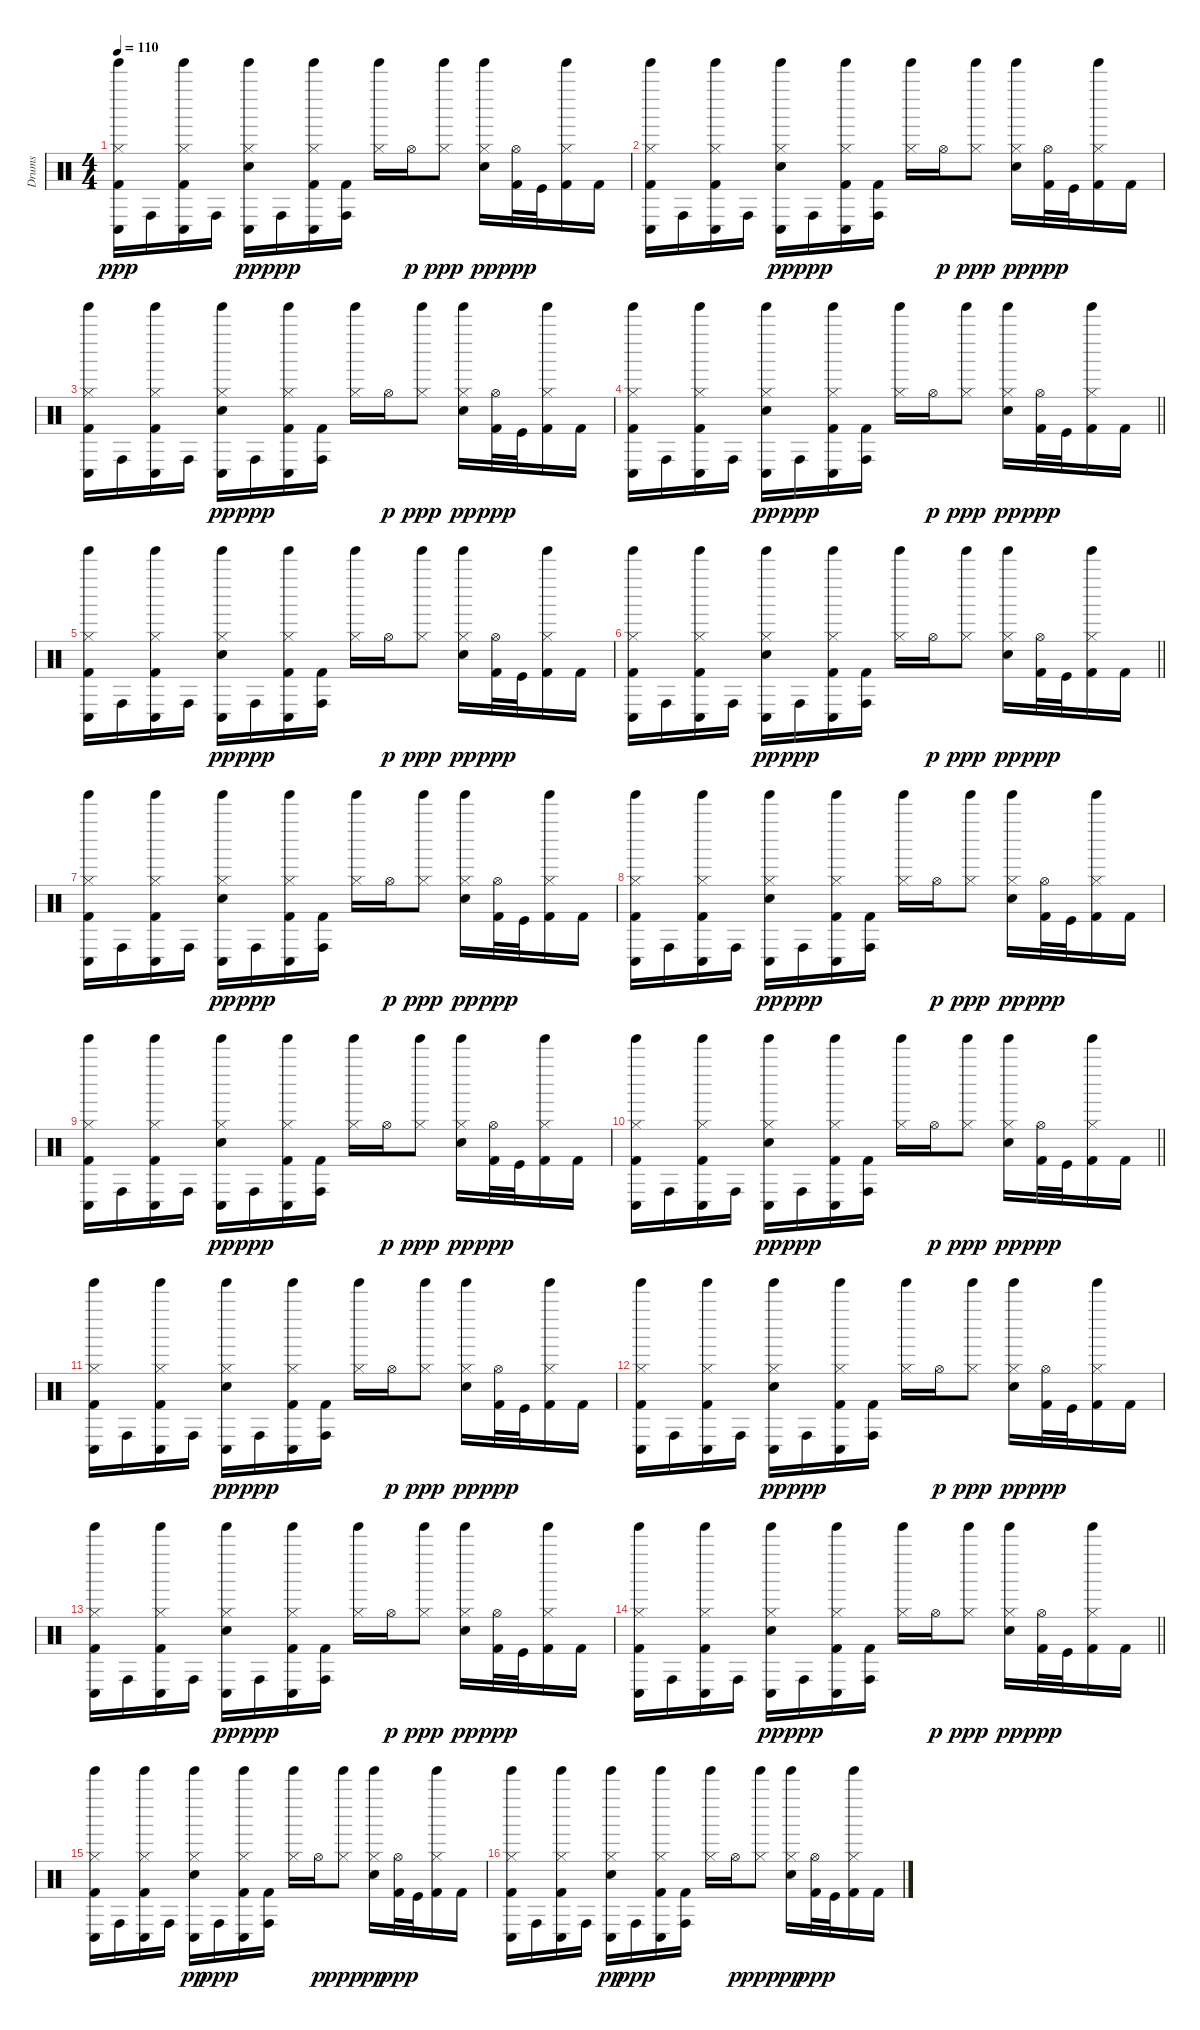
\track ("Drums" "Drums") {instrument percussion}
\staff {score}
\articulation defaults
\ts (4 4)
\tempo 110
\clef neutral
\ks c
("Tinkle Bell (hit)" "Conga low (hit)" "Hi-Hat (closed)" "Kick (hit) 2").16{dy ppp} "Conga high (hit)".16 ("Tinkle Bell (hit)" "Conga low (hit)" "Hi-Hat (closed)" "Kick (hit) 2").16 "Conga high (hit)".16 ("Tinkle Bell (hit)" "Conga low (hit)" "Hi-Hat (closed)" "Snare (hit) 2").16{dy pp} "Conga high (hit)".16{dy ppp} ("Tinkle Bell (hit)" "Conga low (hit)" "Hi-Hat (closed)" "Kick (hit) 2").16 ("Conga high (hit)" "Kick (hit) 2").16 ("Tinkle Bell (hit)" "Hi-Hat (closed)").16 "Hi-Hat (open)".16{dy p} ("Tinkle Bell (hit)" "Hi-Hat (closed)").8{dy ppp} ("Tinkle Bell (hit)" "Hi-Hat (closed)" "Snare (hit) 2").16{dy pp} ("Hi-Hat (open)" "Kick (hit) 2").32{dy ppp} "Kick (hit)".32 ("Tinkle Bell (hit)" "Hi-Hat (closed)" "Kick (hit) 2").16 "Kick (hit) 2".16 |
("Tinkle Bell (hit)" "Conga low (hit)" "Hi-Hat (closed)" "Kick (hit) 2").16 "Conga high (hit)".16 ("Tinkle Bell (hit)" "Conga low (hit)" "Hi-Hat (closed)" "Kick (hit) 2").16 "Conga high (hit)".16 ("Tinkle Bell (hit)" "Conga low (hit)" "Hi-Hat (closed)" "Snare (hit) 2").16{dy pp} "Conga high (hit)".16{dy ppp} ("Tinkle Bell (hit)" "Conga low (hit)" "Hi-Hat (closed)" "Kick (hit) 2").16 ("Conga high (hit)" "Kick (hit) 2").16 ("Tinkle Bell (hit)" "Hi-Hat (closed)").16 "Hi-Hat (open)".16{dy p} ("Tinkle Bell (hit)" "Hi-Hat (closed)").8{dy ppp} ("Tinkle Bell (hit)" "Hi-Hat (closed)" "Snare (hit) 2").16{dy pp} ("Hi-Hat (open)" "Kick (hit) 2").32{dy ppp} "Kick (hit)".32 ("Tinkle Bell (hit)" "Hi-Hat (closed)" "Kick (hit) 2").16 "Kick (hit) 2".16 |
("Tinkle Bell (hit)" "Conga low (hit)" "Hi-Hat (closed)" "Kick (hit) 2").16 "Conga high (hit)".16 ("Tinkle Bell (hit)" "Conga low (hit)" "Hi-Hat (closed)" "Kick (hit) 2").16 "Conga high (hit)".16 ("Tinkle Bell (hit)" "Conga low (hit)" "Hi-Hat (closed)" "Snare (hit) 2").16{dy pp} "Conga high (hit)".16{dy ppp} ("Tinkle Bell (hit)" "Conga low (hit)" "Hi-Hat (closed)" "Kick (hit) 2").16 ("Conga high (hit)" "Kick (hit) 2").16 ("Tinkle Bell (hit)" "Hi-Hat (closed)").16 "Hi-Hat (open)".16{dy p} ("Tinkle Bell (hit)" "Hi-Hat (closed)").8{dy ppp} ("Tinkle Bell (hit)" "Hi-Hat (closed)" "Snare (hit) 2").16{dy pp} ("Hi-Hat (open)" "Kick (hit) 2").32{dy ppp} "Kick (hit)".32 ("Tinkle Bell (hit)" "Hi-Hat (closed)" "Kick (hit) 2").16 "Kick (hit) 2".16 |
\barLineRight lightlight
("Tinkle Bell (hit)" "Conga low (hit)" "Hi-Hat (closed)" "Kick (hit) 2").16 "Conga high (hit)".16 ("Tinkle Bell (hit)" "Conga low (hit)" "Hi-Hat (closed)" "Kick (hit) 2").16 "Conga high (hit)".16 ("Tinkle Bell (hit)" "Conga low (hit)" "Hi-Hat (closed)" "Snare (hit) 2").16{dy pp} "Conga high (hit)".16{dy ppp} ("Tinkle Bell (hit)" "Conga low (hit)" "Hi-Hat (closed)" "Kick (hit) 2").16 ("Conga high (hit)" "Kick (hit) 2").16 ("Tinkle Bell (hit)" "Hi-Hat (closed)").16 "Hi-Hat (open)".16{dy p} ("Tinkle Bell (hit)" "Hi-Hat (closed)").8{dy ppp} ("Tinkle Bell (hit)" "Hi-Hat (closed)" "Snare (hit) 2").16{dy pp} ("Hi-Hat (open)" "Kick (hit) 2").32{dy ppp} "Kick (hit)".32 ("Tinkle Bell (hit)" "Hi-Hat (closed)" "Kick (hit) 2").16 "Kick (hit) 2".16 |
("Tinkle Bell (hit)" "Conga low (hit)" "Hi-Hat (closed)" "Kick (hit) 2").16 "Conga high (hit)".16 ("Tinkle Bell (hit)" "Conga low (hit)" "Hi-Hat (closed)" "Kick (hit) 2").16 "Conga high (hit)".16 ("Tinkle Bell (hit)" "Conga low (hit)" "Hi-Hat (closed)" "Snare (hit) 2").16{dy pp} "Conga high (hit)".16{dy ppp} ("Tinkle Bell (hit)" "Conga low (hit)" "Hi-Hat (closed)" "Kick (hit) 2").16 ("Conga high (hit)" "Kick (hit) 2").16 ("Tinkle Bell (hit)" "Hi-Hat (closed)").16 "Hi-Hat (open)".16{dy p} ("Tinkle Bell (hit)" "Hi-Hat (closed)").8{dy ppp} ("Tinkle Bell (hit)" "Hi-Hat (closed)" "Snare (hit) 2").16{dy pp} ("Hi-Hat (open)" "Kick (hit) 2").32{dy ppp} "Kick (hit)".32 ("Tinkle Bell (hit)" "Hi-Hat (closed)" "Kick (hit) 2").16 "Kick (hit) 2".16 |
\barLineRight lightlight
("Tinkle Bell (hit)" "Conga low (hit)" "Hi-Hat (closed)" "Kick (hit) 2").16 "Conga high (hit)".16 ("Tinkle Bell (hit)" "Conga low (hit)" "Hi-Hat (closed)" "Kick (hit) 2").16 "Conga high (hit)".16 ("Tinkle Bell (hit)" "Conga low (hit)" "Hi-Hat (closed)" "Snare (hit) 2").16{dy pp} "Conga high (hit)".16{dy ppp} ("Tinkle Bell (hit)" "Conga low (hit)" "Hi-Hat (closed)" "Kick (hit) 2").16 ("Conga high (hit)" "Kick (hit) 2").16 ("Tinkle Bell (hit)" "Hi-Hat (closed)").16 "Hi-Hat (open)".16{dy p} ("Tinkle Bell (hit)" "Hi-Hat (closed)").8{dy ppp} ("Tinkle Bell (hit)" "Hi-Hat (closed)" "Snare (hit) 2").16{dy pp} ("Hi-Hat (open)" "Kick (hit) 2").32{dy ppp} "Kick (hit)".32 ("Tinkle Bell (hit)" "Hi-Hat (closed)" "Kick (hit) 2").16 "Kick (hit) 2".16 |
("Tinkle Bell (hit)" "Conga low (hit)" "Hi-Hat (closed)" "Kick (hit) 2").16 "Conga high (hit)".16 ("Tinkle Bell (hit)" "Conga low (hit)" "Hi-Hat (closed)" "Kick (hit) 2").16 "Conga high (hit)".16 ("Tinkle Bell (hit)" "Conga low (hit)" "Hi-Hat (closed)" "Snare (hit) 2").16{dy pp} "Conga high (hit)".16{dy ppp} ("Tinkle Bell (hit)" "Conga low (hit)" "Hi-Hat (closed)" "Kick (hit) 2").16 ("Conga high (hit)" "Kick (hit) 2").16 ("Tinkle Bell (hit)" "Hi-Hat (closed)").16 "Hi-Hat (open)".16{dy p} ("Tinkle Bell (hit)" "Hi-Hat (closed)").8{dy ppp} ("Tinkle Bell (hit)" "Hi-Hat (closed)" "Snare (hit) 2").16{dy pp} ("Hi-Hat (open)" "Kick (hit) 2").32{dy ppp} "Kick (hit)".32 ("Tinkle Bell (hit)" "Hi-Hat (closed)" "Kick (hit) 2").16 "Kick (hit) 2".16 |
("Tinkle Bell (hit)" "Conga low (hit)" "Hi-Hat (closed)" "Kick (hit) 2").16 "Conga high (hit)".16 ("Tinkle Bell (hit)" "Conga low (hit)" "Hi-Hat (closed)" "Kick (hit) 2").16 "Conga high (hit)".16 ("Tinkle Bell (hit)" "Conga low (hit)" "Hi-Hat (closed)" "Snare (hit) 2").16{dy pp} "Conga high (hit)".16{dy ppp} ("Tinkle Bell (hit)" "Conga low (hit)" "Hi-Hat (closed)" "Kick (hit) 2").16 ("Conga high (hit)" "Kick (hit) 2").16 ("Tinkle Bell (hit)" "Hi-Hat (closed)").16 "Hi-Hat (open)".16{dy p} ("Tinkle Bell (hit)" "Hi-Hat (closed)").8{dy ppp} ("Tinkle Bell (hit)" "Hi-Hat (closed)" "Snare (hit) 2").16{dy pp} ("Hi-Hat (open)" "Kick (hit) 2").32{dy ppp} "Kick (hit)".32 ("Tinkle Bell (hit)" "Hi-Hat (closed)" "Kick (hit) 2").16 "Kick (hit) 2".16 |
("Tinkle Bell (hit)" "Conga low (hit)" "Hi-Hat (closed)" "Kick (hit) 2").16 "Conga high (hit)".16 ("Tinkle Bell (hit)" "Conga low (hit)" "Hi-Hat (closed)" "Kick (hit) 2").16 "Conga high (hit)".16 ("Tinkle Bell (hit)" "Conga low (hit)" "Hi-Hat (closed)" "Snare (hit) 2").16{dy pp} "Conga high (hit)".16{dy ppp} ("Tinkle Bell (hit)" "Conga low (hit)" "Hi-Hat (closed)" "Kick (hit) 2").16 ("Conga high (hit)" "Kick (hit) 2").16 ("Tinkle Bell (hit)" "Hi-Hat (closed)").16 "Hi-Hat (open)".16{dy p} ("Tinkle Bell (hit)" "Hi-Hat (closed)").8{dy ppp} ("Tinkle Bell (hit)" "Hi-Hat (closed)" "Snare (hit) 2").16{dy pp} ("Hi-Hat (open)" "Kick (hit) 2").32{dy ppp} "Kick (hit)".32 ("Tinkle Bell (hit)" "Hi-Hat (closed)" "Kick (hit) 2").16 "Kick (hit) 2".16 |
\barLineRight lightlight
("Tinkle Bell (hit)" "Conga low (hit)" "Hi-Hat (closed)" "Kick (hit) 2").16 "Conga high (hit)".16 ("Tinkle Bell (hit)" "Conga low (hit)" "Hi-Hat (closed)" "Kick (hit) 2").16 "Conga high (hit)".16 ("Tinkle Bell (hit)" "Conga low (hit)" "Hi-Hat (closed)" "Snare (hit) 2").16{dy pp} "Conga high (hit)".16{dy ppp} ("Tinkle Bell (hit)" "Conga low (hit)" "Hi-Hat (closed)" "Kick (hit) 2").16 ("Conga high (hit)" "Kick (hit) 2").16 ("Tinkle Bell (hit)" "Hi-Hat (closed)").16 "Hi-Hat (open)".16{dy p} ("Tinkle Bell (hit)" "Hi-Hat (closed)").8{dy ppp} ("Tinkle Bell (hit)" "Hi-Hat (closed)" "Snare (hit) 2").16{dy pp} ("Hi-Hat (open)" "Kick (hit) 2").32{dy ppp} "Kick (hit)".32 ("Tinkle Bell (hit)" "Hi-Hat (closed)" "Kick (hit) 2").16 "Kick (hit) 2".16 |
("Tinkle Bell (hit)" "Conga low (hit)" "Hi-Hat (closed)" "Kick (hit) 2").16 "Conga high (hit)".16 ("Tinkle Bell (hit)" "Conga low (hit)" "Hi-Hat (closed)" "Kick (hit) 2").16 "Conga high (hit)".16 ("Tinkle Bell (hit)" "Conga low (hit)" "Hi-Hat (closed)" "Snare (hit) 2").16{dy pp} "Conga high (hit)".16{dy ppp} ("Tinkle Bell (hit)" "Conga low (hit)" "Hi-Hat (closed)" "Kick (hit) 2").16 ("Conga high (hit)" "Kick (hit) 2").16 ("Tinkle Bell (hit)" "Hi-Hat (closed)").16 "Hi-Hat (open)".16{dy p} ("Tinkle Bell (hit)" "Hi-Hat (closed)").8{dy ppp} ("Tinkle Bell (hit)" "Hi-Hat (closed)" "Snare (hit) 2").16{dy pp} ("Hi-Hat (open)" "Kick (hit) 2").32{dy ppp} "Kick (hit)".32 ("Tinkle Bell (hit)" "Hi-Hat (closed)" "Kick (hit) 2").16 "Kick (hit) 2".16 |
("Tinkle Bell (hit)" "Conga low (hit)" "Hi-Hat (closed)" "Kick (hit) 2").16 "Conga high (hit)".16 ("Tinkle Bell (hit)" "Conga low (hit)" "Hi-Hat (closed)" "Kick (hit) 2").16 "Conga high (hit)".16 ("Tinkle Bell (hit)" "Conga low (hit)" "Hi-Hat (closed)" "Snare (hit) 2").16{dy pp} "Conga high (hit)".16{dy ppp} ("Tinkle Bell (hit)" "Conga low (hit)" "Hi-Hat (closed)" "Kick (hit) 2").16 ("Conga high (hit)" "Kick (hit) 2").16 ("Tinkle Bell (hit)" "Hi-Hat (closed)").16 "Hi-Hat (open)".16{dy p} ("Tinkle Bell (hit)" "Hi-Hat (closed)").8{dy ppp} ("Tinkle Bell (hit)" "Hi-Hat (closed)" "Snare (hit) 2").16{dy pp} ("Hi-Hat (open)" "Kick (hit) 2").32{dy ppp} "Kick (hit)".32 ("Tinkle Bell (hit)" "Hi-Hat (closed)" "Kick (hit) 2").16 "Kick (hit) 2".16 |
("Tinkle Bell (hit)" "Conga low (hit)" "Hi-Hat (closed)" "Kick (hit) 2").16 "Conga high (hit)".16 ("Tinkle Bell (hit)" "Conga low (hit)" "Hi-Hat (closed)" "Kick (hit) 2").16 "Conga high (hit)".16 ("Tinkle Bell (hit)" "Conga low (hit)" "Hi-Hat (closed)" "Snare (hit) 2").16{dy pp} "Conga high (hit)".16{dy ppp} ("Tinkle Bell (hit)" "Conga low (hit)" "Hi-Hat (closed)" "Kick (hit) 2").16 ("Conga high (hit)" "Kick (hit) 2").16 ("Tinkle Bell (hit)" "Hi-Hat (closed)").16 "Hi-Hat (open)".16{dy p} ("Tinkle Bell (hit)" "Hi-Hat (closed)").8{dy ppp} ("Tinkle Bell (hit)" "Hi-Hat (closed)" "Snare (hit) 2").16{dy pp} ("Hi-Hat (open)" "Kick (hit) 2").32{dy ppp} "Kick (hit)".32 ("Tinkle Bell (hit)" "Hi-Hat (closed)" "Kick (hit) 2").16 "Kick (hit) 2".16 |
\barLineRight lightlight
("Tinkle Bell (hit)" "Conga low (hit)" "Hi-Hat (closed)" "Kick (hit) 2").16 "Conga high (hit)".16 ("Tinkle Bell (hit)" "Conga low (hit)" "Hi-Hat (closed)" "Kick (hit) 2").16 "Conga high (hit)".16 ("Tinkle Bell (hit)" "Conga low (hit)" "Hi-Hat (closed)" "Snare (hit) 2").16{dy pp} "Conga high (hit)".16{dy ppp} ("Tinkle Bell (hit)" "Conga low (hit)" "Hi-Hat (closed)" "Kick (hit) 2").16 ("Conga high (hit)" "Kick (hit) 2").16 ("Tinkle Bell (hit)" "Hi-Hat (closed)").16 "Hi-Hat (open)".16{dy p} ("Tinkle Bell (hit)" "Hi-Hat (closed)").8{dy ppp} ("Tinkle Bell (hit)" "Hi-Hat (closed)" "Snare (hit) 2").16{dy pp} ("Hi-Hat (open)" "Kick (hit) 2").32{dy ppp} "Kick (hit)".32 ("Tinkle Bell (hit)" "Hi-Hat (closed)" "Kick (hit) 2").16 "Kick (hit) 2".16 |
("Tinkle Bell (hit)" "Conga low (hit)" "Hi-Hat (closed)" "Kick (hit) 2").16 "Conga high (hit)".16 ("Tinkle Bell (hit)" "Conga low (hit)" "Hi-Hat (closed)" "Kick (hit) 2").16 "Conga high (hit)".16 ("Tinkle Bell (hit)" "Conga low (hit)" "Hi-Hat (closed)" "Snare (hit) 2").16{dy pp} "Conga high (hit)".16{dy ppp} ("Tinkle Bell (hit)" "Conga low (hit)" "Hi-Hat (closed)" "Kick (hit) 2").16 ("Conga high (hit)" "Kick (hit) 2").16 ("Tinkle Bell (hit)" "Hi-Hat (closed)").16 "Hi-Hat (open)".16{dy p} ("Tinkle Bell (hit)" "Hi-Hat (closed)").8{dy ppp} ("Tinkle Bell (hit)" "Hi-Hat (closed)" "Snare (hit) 2").16{dy pp} ("Hi-Hat (open)" "Kick (hit) 2").32{dy ppp} "Kick (hit)".32 ("Tinkle Bell (hit)" "Hi-Hat (closed)" "Kick (hit) 2").16 "Kick (hit) 2".16 |
("Tinkle Bell (hit)" "Conga low (hit)" "Hi-Hat (closed)" "Kick (hit) 2").16 "Conga high (hit)".16 ("Tinkle Bell (hit)" "Conga low (hit)" "Hi-Hat (closed)" "Kick (hit) 2").16 "Conga high (hit)".16 ("Tinkle Bell (hit)" "Conga low (hit)" "Hi-Hat (closed)" "Snare (hit) 2").16{dy pp} "Conga high (hit)".16{dy ppp} ("Tinkle Bell (hit)" "Conga low (hit)" "Hi-Hat (closed)" "Kick (hit) 2").16 ("Conga high (hit)" "Kick (hit) 2").16 ("Tinkle Bell (hit)" "Hi-Hat (closed)").16 "Hi-Hat (open)".16{dy p} ("Tinkle Bell (hit)" "Hi-Hat (closed)").8{dy ppp} ("Tinkle Bell (hit)" "Hi-Hat (closed)" "Snare (hit) 2").16{dy pp} ("Hi-Hat (open)" "Kick (hit) 2").32{dy ppp} "Kick (hit)".32 ("Tinkle Bell (hit)" "Hi-Hat (closed)" "Kick (hit) 2").16 "Kick (hit) 2".16
